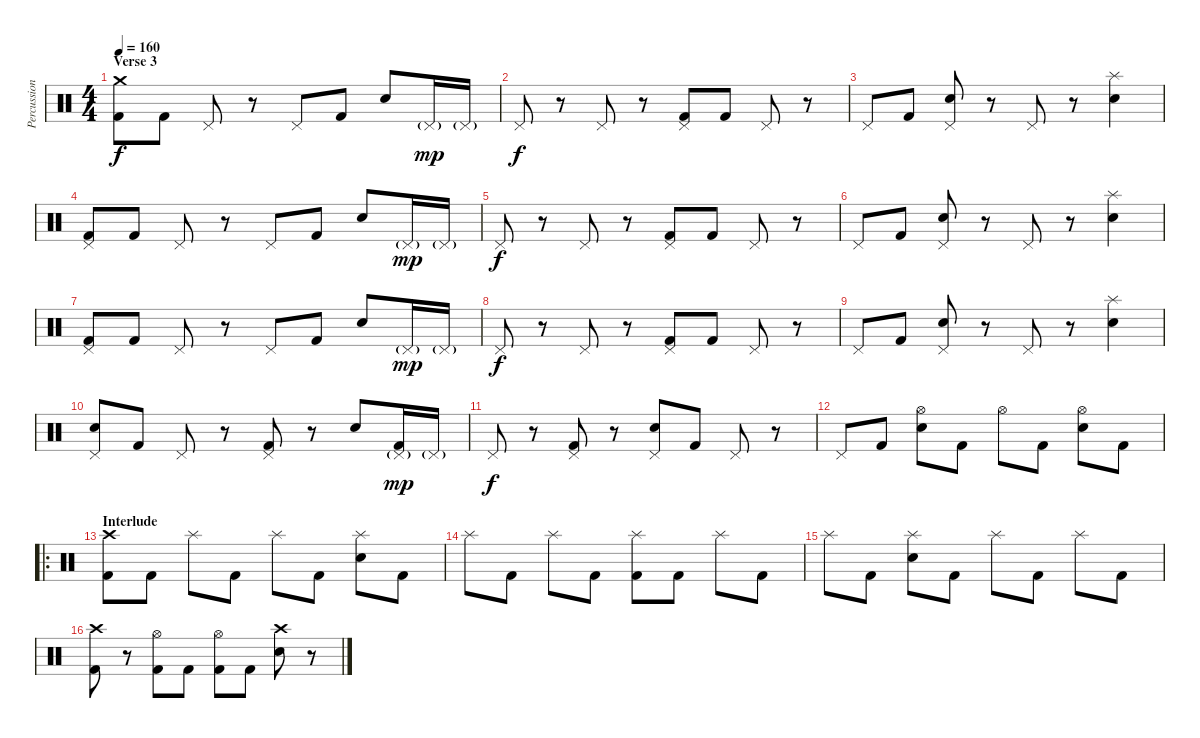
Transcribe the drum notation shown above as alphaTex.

\track ("Percussion" "Percussion") {instrument percussion}
\staff {score}
\articulation defaults
\ts (4 4)
\section ("" "Verse 3")
\tempo 160
\clef neutral
\ks c
("Crash medium (hit)" "Kick (hit) 2").8{dy f} "Kick (hit) 2".8 "Pedal Hi-Hat (hit)".8 r.8 "Pedal Hi-Hat (hit)".8 "Kick (hit) 2".8 "Electric Snare (hit)".8 "Pedal Hi-Hat (hit)"{g}.16{dy mp} "Pedal Hi-Hat (hit)"{g}.16 |
"Pedal Hi-Hat (hit)".8{dy f} r.8 "Pedal Hi-Hat (hit)".8 r.8 ("Pedal Hi-Hat (hit)" "Kick (hit) 2").8 "Kick (hit) 2".8 "Pedal Hi-Hat (hit)".8 r.8 |
"Pedal Hi-Hat (hit)".8 "Kick (hit) 2".8 ("Pedal Hi-Hat (hit)" "Electric Snare (hit)").8 r.8 "Pedal Hi-Hat (hit)".8 r.8 ("Splash (hit)" "Electric Snare (hit)").4 |
("Pedal Hi-Hat (hit)" "Kick (hit) 2").8 "Kick (hit) 2".8 "Pedal Hi-Hat (hit)".8 r.8 "Pedal Hi-Hat (hit)".8 "Kick (hit) 2".8 "Electric Snare (hit)".8 "Pedal Hi-Hat (hit)"{g}.16{dy mp} "Pedal Hi-Hat (hit)"{g}.16 |
"Pedal Hi-Hat (hit)".8{dy f} r.8 "Pedal Hi-Hat (hit)".8 r.8 ("Pedal Hi-Hat (hit)" "Kick (hit) 2").8 "Kick (hit) 2".8 "Pedal Hi-Hat (hit)".8 r.8 |
"Pedal Hi-Hat (hit)".8 "Kick (hit) 2".8 ("Pedal Hi-Hat (hit)" "Electric Snare (hit)").8 r.8 "Pedal Hi-Hat (hit)".8 r.8 ("Splash (hit)" "Electric Snare (hit)").4 |
("Pedal Hi-Hat (hit)" "Kick (hit) 2").8 "Kick (hit) 2".8 "Pedal Hi-Hat (hit)".8 r.8 "Pedal Hi-Hat (hit)".8 "Kick (hit) 2".8 "Electric Snare (hit)".8 "Pedal Hi-Hat (hit)"{g}.16{dy mp} "Pedal Hi-Hat (hit)"{g}.16 |
"Pedal Hi-Hat (hit)".8{dy f} r.8 "Pedal Hi-Hat (hit)".8 r.8 ("Pedal Hi-Hat (hit)" "Kick (hit) 2").8 "Kick (hit) 2".8 "Pedal Hi-Hat (hit)".8 r.8 |
"Pedal Hi-Hat (hit)".8 "Kick (hit) 2".8 ("Pedal Hi-Hat (hit)" "Electric Snare (hit)").8 r.8 "Pedal Hi-Hat (hit)".8 r.8 ("Splash (hit)" "Electric Snare (hit)").4 |
("Pedal Hi-Hat (hit)" "Electric Snare (hit)").8 "Kick (hit) 2".8 "Pedal Hi-Hat (hit)".8 r.8 ("Pedal Hi-Hat (hit)" "Kick (hit) 2").8 r.8 "Electric Snare (hit)".8 ("Pedal Hi-Hat (hit)"{g} "Kick (hit) 2").16{dy mp} "Pedal Hi-Hat (hit)"{g}.16 |
"Pedal Hi-Hat (hit)".8{dy f} r.8 ("Pedal Hi-Hat (hit)" "Kick (hit) 2").8 r.8 ("Pedal Hi-Hat (hit)" "Electric Snare (hit)").8 "Kick (hit) 2".8 "Pedal Hi-Hat (hit)".8 r.8 |
"Pedal Hi-Hat (hit)".8 "Kick (hit) 2".8 ("Hi-Hat (open)" "Electric Snare (hit)").8 "Kick (hit) 2".8 "Hi-Hat (open)".8 "Kick (hit) 2".8 ("Hi-Hat (open)" "Electric Snare (hit)").8 "Kick (hit) 2".8 |
\ro
\section ("" "Interlude")
("Crash high (hit)" "Kick (hit) 2").8 "Kick (hit) 2".8 "Splash (hit)".8 "Kick (hit) 2".8 "Splash (hit)".8 "Kick (hit) 2".8 ("Splash (hit)" "Electric Snare (hit)").8 "Kick (hit) 2".8 |
"Splash (hit)".8 "Kick (hit) 2".8 "Splash (hit)".8 "Kick (hit) 2".8 ("Splash (hit)" "Kick (hit) 2").8 "Kick (hit) 2".8 "Splash (hit)".8 "Kick (hit) 2".8 |
"Splash (hit)".8 "Kick (hit) 2".8 ("Splash (hit)" "Electric Snare (hit)").8 "Kick (hit) 2".8 "Splash (hit)".8 "Kick (hit) 2".8 "Splash (hit)".8 "Kick (hit) 2".8 |
("Crash high (hit)" "Kick (hit) 2").8 r.8 ("Hi-Hat (open)" "Kick (hit) 2").8 "Kick (hit) 2".8 ("Hi-Hat (open)" "Kick (hit) 2").8 "Kick (hit) 2".8 ("Crash high (hit)" "Electric Snare (hit)").8 r.8
